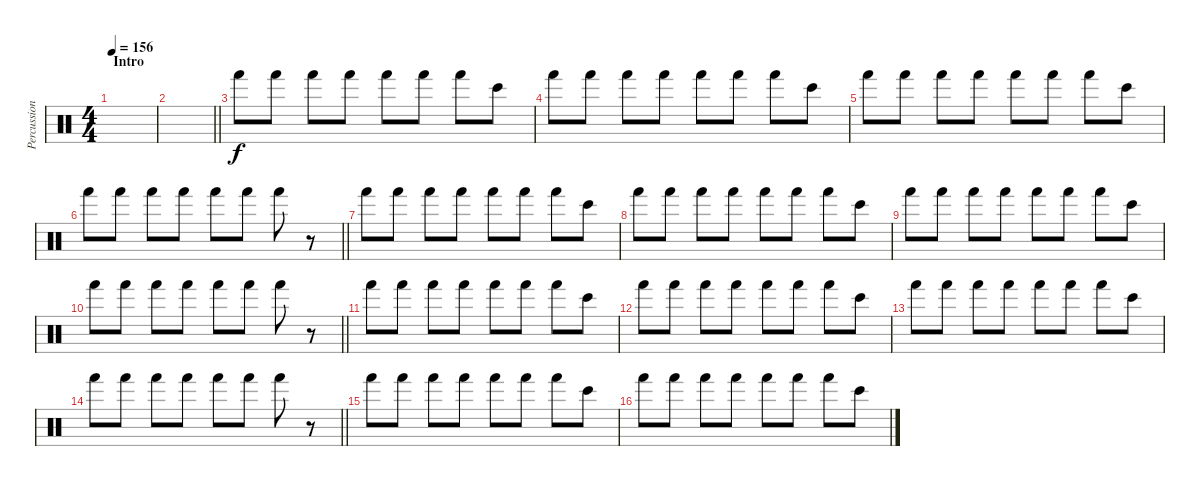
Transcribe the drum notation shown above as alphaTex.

\track ("Percussion" "Percussion") {instrument percussion}
\staff {score}
\articulation defaults
\ts (4 4)
\section ("" "Intro")
\tempo 156
\clef neutral
\ks c
|
\barLineRight lightlight
|
"Hand (hit)".8{volume 6 balance 2} "Hand (hit)".8 "Hand (hit)".8 "Hand (hit)".8 "Hand (hit)".8 "Hand (hit)".8 "Hand (hit)".8 "Bongo High (hit)".8 |
"Hand (hit)".8 "Hand (hit)".8 "Hand (hit)".8 "Hand (hit)".8 "Hand (hit)".8 "Hand (hit)".8 "Hand (hit)".8 "Bongo High (hit)".8 |
"Hand (hit)".8 "Hand (hit)".8 "Hand (hit)".8 "Hand (hit)".8 "Hand (hit)".8 "Hand (hit)".8 "Hand (hit)".8 "Bongo High (hit)".8 |
\barLineRight lightlight "Hand (hit)".8 "Hand (hit)".8 "Hand (hit)".8 "Hand (hit)".8 "Hand (hit)".8 "Hand (hit)".8 "Hand (hit)".8
r.8 |
"Hand (hit)".8 "Hand (hit)".8 "Hand (hit)".8 "Hand (hit)".8 "Hand (hit)".8 "Hand (hit)".8 "Hand (hit)".8 "Bongo High (hit)".8 |
"Hand (hit)".8 "Hand (hit)".8 "Hand (hit)".8 "Hand (hit)".8 "Hand (hit)".8 "Hand (hit)".8 "Hand (hit)".8 "Bongo High (hit)".8 |
"Hand (hit)".8 "Hand (hit)".8 "Hand (hit)".8 "Hand (hit)".8 "Hand (hit)".8 "Hand (hit)".8 "Hand (hit)".8 "Bongo High (hit)".8 |
\barLineRight lightlight "Hand (hit)".8 "Hand (hit)".8 "Hand (hit)".8 "Hand (hit)".8 "Hand (hit)".8 "Hand (hit)".8 "Hand (hit)".8
r.8 |
"Hand (hit)".8 "Hand (hit)".8 "Hand (hit)".8 "Hand (hit)".8 "Hand (hit)".8 "Hand (hit)".8 "Hand (hit)".8 "Bongo High (hit)".8 |
"Hand (hit)".8 "Hand (hit)".8 "Hand (hit)".8 "Hand (hit)".8 "Hand (hit)".8 "Hand (hit)".8 "Hand (hit)".8 "Bongo High (hit)".8 |
"Hand (hit)".8 "Hand (hit)".8 "Hand (hit)".8 "Hand (hit)".8 "Hand (hit)".8 "Hand (hit)".8 "Hand (hit)".8 "Bongo High (hit)".8 |
\barLineRight lightlight "Hand (hit)".8 "Hand (hit)".8 "Hand (hit)".8 "Hand (hit)".8 "Hand (hit)".8 "Hand (hit)".8 "Hand (hit)".8
r.8 |
"Hand (hit)".8 "Hand (hit)".8 "Hand (hit)".8 "Hand (hit)".8 "Hand (hit)".8 "Hand (hit)".8 "Hand (hit)".8 "Bongo High (hit)".8 |
"Hand (hit)".8 "Hand (hit)".8 "Hand (hit)".8 "Hand (hit)".8 "Hand (hit)".8 "Hand (hit)".8 "Hand (hit)".8 "Bongo High (hit)".8
